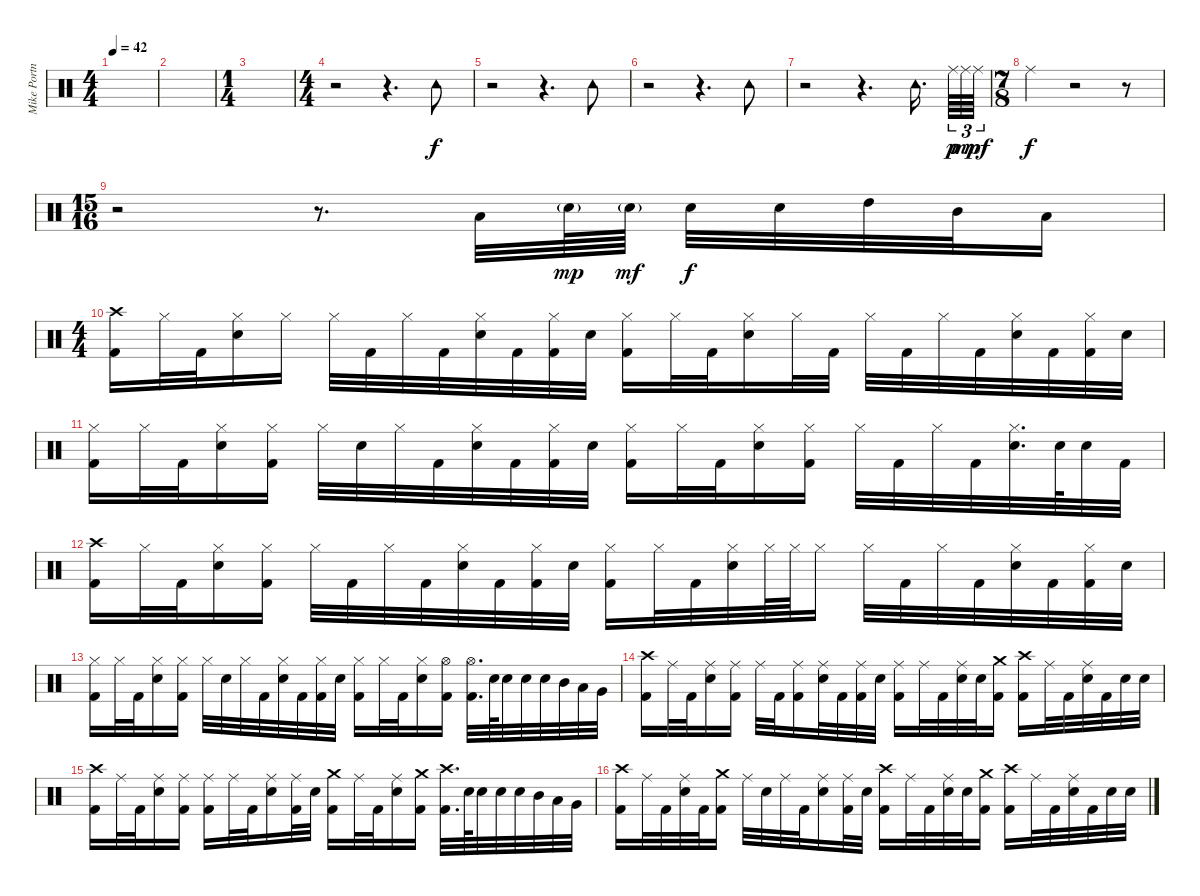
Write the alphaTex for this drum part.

\track ("Mike Portnoy" "Mike Portn") {instrument percussion}
\staff {score}
\articulation defaults
\ts (4 4)
\tempo 42
\clef neutral
\ks c
|
|
\ts (1 4)
|
\ts (4 4)
r.2{volume 16} r.4{d} "Tambourine (hit)".8 |
r.2 r.4{d} "Tambourine (hit)".8 |
r.2 r.4{d} "Tambourine (hit)".8 |
r.2 r.4{d} "Tambourine (hit)".16{d beam splitsecondary} "Ride (middle)".64{tu (3 2) dy p} "Ride (middle)".64{tu (3 2) dy mp} "Ride (middle)".64{tu (3 2) dy mf} |
\ts (7 8)
"Ride (middle)".4{dy f} r.2 r.8 |
\ts (15 16)
r.2 r.8{d} "Low Tom (hit)".32 "Snare (hit) 2"{g}.64{dy mp} "Snare (hit) 2"{g}.64{dy mf} "Snare (hit) 2".32{dy f} "Snare (hit) 2".32 "High Tom (hit)".32 "Mid Tom (hit)".32 "Low Tom (hit)".16 |
\ts (4 4)
("Crash high (hit)" "Kick (hit) 2").16 "Hi-Hat (closed)".32 "Kick (hit) 2".32 ("Hi-Hat (closed)" "Snare (hit) 2").16 "Hi-Hat (closed)".16 "Hi-Hat (closed)".32 "Kick (hit) 2".32 "Hi-Hat (closed)".32 "Kick (hit) 2".32 ("Hi-Hat (closed)" "Snare (hit) 2").32 "Kick (hit) 2".32 ("Hi-Hat (closed)" "Kick (hit) 2").32 "Snare (hit) 2".32 ("Hi-Hat (closed)" "Kick (hit) 2").16 "Hi-Hat (closed)".32 "Kick (hit) 2".32 ("Hi-Hat (closed)" "Snare (hit) 2").16 "Hi-Hat (closed)".32 "Kick (hit) 2".32 "Hi-Hat (closed)".32 "Kick (hit) 2".32 "Hi-Hat (closed)".32 "Kick (hit) 2".32 ("Hi-Hat (closed)" "Snare (hit) 2").32 "Kick (hit) 2".32 ("Hi-Hat (closed)" "Kick (hit) 2").32 "Snare (hit) 2".32 |
("Hi-Hat (closed)" "Kick (hit) 2").16 "Hi-Hat (closed)".32 "Kick (hit) 2".32 ("Hi-Hat (closed)" "Snare (hit) 2").16 ("Hi-Hat (closed)" "Kick (hit) 2").16 "Hi-Hat (closed)".32 "Snare (hit) 2".32 "Hi-Hat (closed)".32 "Kick (hit) 2".32 ("Hi-Hat (closed)" "Snare (hit) 2").32 "Kick (hit) 2".32 ("Hi-Hat (closed)" "Kick (hit) 2").32 "Snare (hit) 2".32 ("Hi-Hat (closed)" "Kick (hit) 2").16 "Hi-Hat (closed)".32 "Kick (hit) 2".32 ("Hi-Hat (closed)" "Snare (hit) 2").16 ("Hi-Hat (closed)" "Kick (hit) 2").16 "Hi-Hat (closed)".32 "Kick (hit) 2".32 "Hi-Hat (closed)".32 "Kick (hit) 2".32 ("Hi-Hat (closed)" "Snare (hit) 2").32{d} "Snare (hit) 2".64 "Snare (hit) 2".32 "Kick (hit) 2".32 |
("Crash high (hit)" "Kick (hit) 2").16 "Hi-Hat (closed)".32 "Kick (hit) 2".32 ("Hi-Hat (closed)" "Snare (hit) 2").16 ("Hi-Hat (closed)" "Kick (hit) 2").16 "Hi-Hat (closed)".32 "Kick (hit) 2".32 "Hi-Hat (closed)".32 "Kick (hit) 2".32 ("Hi-Hat (closed)" "Snare (hit) 2").32 "Kick (hit) 2".32 ("Hi-Hat (closed)" "Kick (hit) 2").32 "Snare (hit) 2".32 ("Hi-Hat (closed)" "Kick (hit) 2").16 "Hi-Hat (closed)".32 "Kick (hit) 2".32 ("Hi-Hat (closed)" "Snare (hit) 2").32 "Hi-Hat (closed)".64 "Hi-Hat (closed)".64 "Hi-Hat (closed)".16 "Hi-Hat (closed)".32 "Kick (hit) 2".32 "Hi-Hat (closed)".32 "Kick (hit) 2".32 ("Hi-Hat (closed)" "Snare (hit) 2").32 "Kick (hit) 2".32 ("Hi-Hat (closed)" "Kick (hit) 2").32 "Snare (hit) 2".32 |
("Hi-Hat (closed)" "Kick (hit) 2").16 "Hi-Hat (closed)".32 "Kick (hit) 2".32 ("Hi-Hat (closed)" "Snare (hit) 2").16 ("Hi-Hat (closed)" "Kick (hit) 2").16 "Hi-Hat (closed)".32 "Snare (hit) 2".32 "Hi-Hat (closed)".32 "Kick (hit) 2".32 ("Hi-Hat (closed)" "Snare (hit) 2").32 "Kick (hit) 2".32 ("Hi-Hat (closed)" "Kick (hit) 2").32 "Snare (hit) 2".32 ("Hi-Hat (closed)" "Kick (hit) 2").16 "Hi-Hat (closed)".32 "Kick (hit) 2".32 ("Hi-Hat (closed)" "Snare (hit) 2").16 ("Hi-Hat (open)" "Kick (hit) 2").16 ("Hi-Hat (open)" "Kick (hit) 2").32{d} "Snare (hit) 2".64 "Snare (hit) 2".32 "Snare (hit) 2".32 "Snare (hit) 2".32 "Mid Tom (hit)".32 "Low Tom (hit)".32 "Very Low Tom (hit)".32 |
("Crash high (hit)" "Kick (hit) 2").16 "Ride (middle)".32 "Kick (hit) 2".32 ("Ride (middle)" "Snare (hit) 2").16 ("Ride (middle)" "Kick (hit) 2").16 "Ride (middle)".32 "Kick (hit) 2".32 ("Ride (middle)" "Kick (hit) 2").16 ("Ride (middle)" "Snare (hit) 2").32 "Kick (hit) 2".32 ("Ride (middle)" "Kick (hit) 2").32 "Snare (hit) 2".32 ("Ride (middle)" "Kick (hit) 2").16 "Ride (middle)".32 "Kick (hit) 2".32 ("Ride (middle)" "Snare (hit) 2").32 "Snare (hit) 2".32 ("Crash medium (hit)" "Kick (hit) 2").16 ("Crash high (hit)" "Kick (hit) 2").16 "Ride (middle)".32 "Kick (hit) 2".32 ("Ride (middle)" "Snare (hit) 2").32 "Kick (hit) 2".32 "Snare (hit) 2".32 "Snare (hit) 2".32 |
("Crash high (hit)" "Kick (hit) 2").16 "Ride (middle)".32 "Kick (hit) 2".32 ("Ride (middle)" "Snare (hit) 2").16 ("Ride (middle)" "Kick (hit) 2").16 ("Ride (middle)" "Kick (hit) 2").16 "Ride (middle)".32 "Kick (hit) 2".32 ("Ride (middle)" "Snare (hit) 2").16 ("Ride (middle)" "Kick (hit) 2").32 "Snare (hit) 2".32 ("Crash medium (hit)" "Kick (hit) 2").16 "Ride (middle)".32 "Kick (hit) 2".32 ("Ride (middle)" "Snare (hit) 2").16 ("Crash medium (hit)" "Kick (hit) 2").16 ("Crash high (hit)" "Kick (hit) 2").32{d} "Snare (hit) 2".64 "Snare (hit) 2".32 "Snare (hit) 2".32 "Snare (hit) 2".32 "Mid Tom (hit)".32 "Low Tom (hit)".32 "Very Low Tom (hit)".32 |
("Crash high (hit)" "Kick (hit) 2").16 "Ride (middle)".32 "Kick (hit) 2".32 ("Ride (middle)" "Snare (hit) 2").32 "Kick (hit) 2".32 ("Crash medium (hit)" "Kick (hit) 2").16 "Ride (middle)".32 "Snare (hit) 2".32 "Ride (middle)".32 "Kick (hit) 2".32 ("Ride (middle)" "Snare (hit) 2").16 ("Ride (middle)" "Kick (hit) 2").32 "Snare (hit) 2".32 ("Crash high (hit)" "Kick (hit) 2").16 "Ride (middle)".32 "Kick (hit) 2".32 ("Ride (middle)" "Snare (hit) 2").32 "Snare (hit) 2".32 ("Crash medium (hit)" "Kick (hit) 2").16 ("Crash high (hit)" "Kick (hit) 2").16 "Ride (middle)".32 "Kick (hit) 2".32 ("Ride (middle)" "Snare (hit) 2").32 "Kick (hit) 2".32 "Snare (hit) 2".32 "Snare (hit) 2".32
